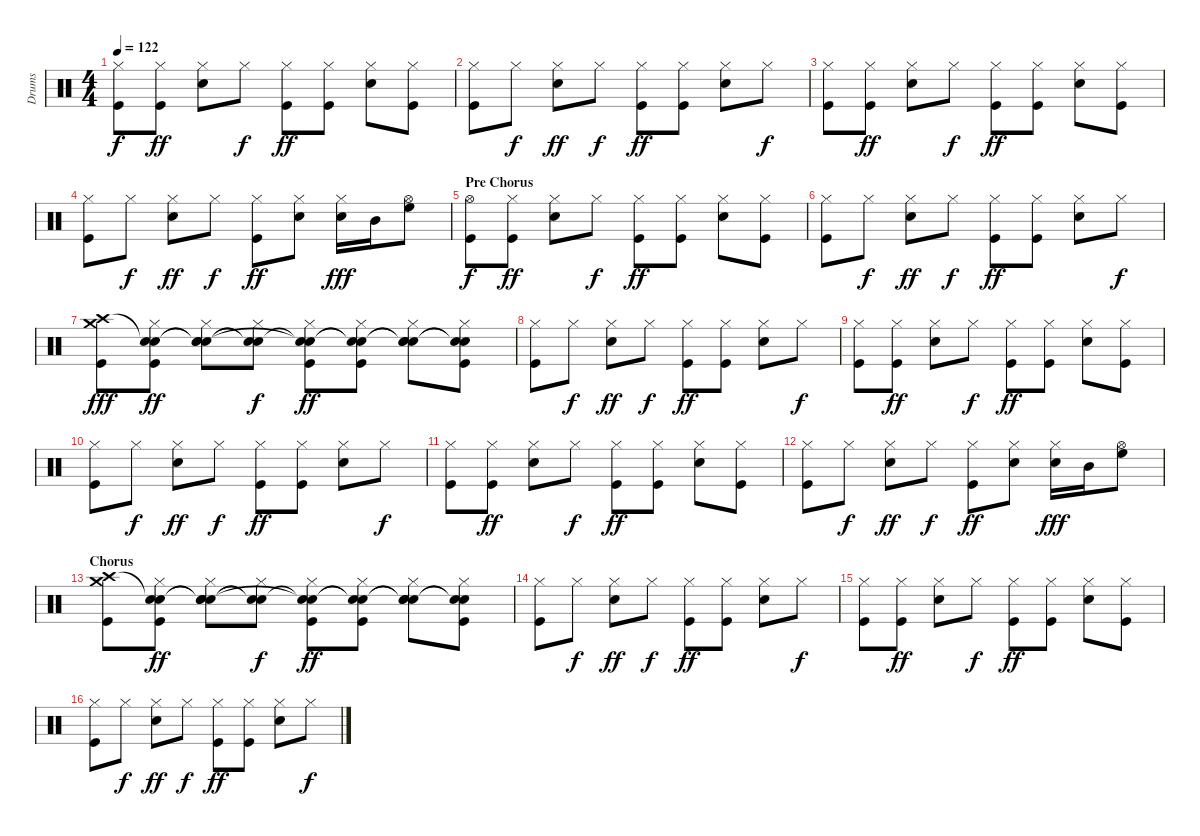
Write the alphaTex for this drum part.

\track ("Drums" "Drums") {instrument percussion}
\staff {score}
\articulation defaults
\ts (4 4)
\tempo 122
\clef neutral
\ks c
("Hi-Hat (closed)" "Kick (hit)").8{dy f} ("Hi-Hat (closed)" "Kick (hit)").8{dy ff} ("Hi-Hat (closed)" "Snare (hit) 2").8 "Hi-Hat (closed)".8{dy f} ("Hi-Hat (closed)" "Kick (hit)").8{dy ff} ("Hi-Hat (closed)" "Kick (hit)").8 ("Hi-Hat (closed)" "Snare (hit) 2").8 ("Hi-Hat (closed)" "Kick (hit)").8 |
("Hi-Hat (closed)" "Kick (hit)").8 "Hi-Hat (closed)".8{dy f} ("Hi-Hat (closed)" "Snare (hit) 2").8{dy ff} "Hi-Hat (closed)".8{dy f} ("Hi-Hat (closed)" "Kick (hit)").8{dy ff} ("Hi-Hat (closed)" "Kick (hit)").8 ("Hi-Hat (closed)" "Snare (hit) 2").8 "Hi-Hat (closed)".8{dy f} |
("Hi-Hat (closed)" "Kick (hit)").8 ("Hi-Hat (closed)" "Kick (hit)").8{dy ff} ("Hi-Hat (closed)" "Snare (hit) 2").8 "Hi-Hat (closed)".8{dy f} ("Hi-Hat (closed)" "Kick (hit)").8{dy ff} ("Hi-Hat (closed)" "Kick (hit)").8 ("Hi-Hat (closed)" "Snare (hit) 2").8 ("Hi-Hat (closed)" "Kick (hit)").8 |
("Hi-Hat (closed)" "Kick (hit)").8 "Hi-Hat (closed)".8{dy f} ("Hi-Hat (closed)" "Snare (hit) 2").8{dy ff} "Hi-Hat (closed)".8{dy f} ("Hi-Hat (closed)" "Kick (hit)").8{dy ff} ("Hi-Hat (closed)" "Snare (hit) 2").8 ("Hi-Hat (closed)" "Snare (hit) 2").16{dy fff} "Mid Tom (hit)".16 ("Hi-Hat (open)" "High Floor Tom (hit)").8 |
\section ("" "Pre Chorus")
("Hi-Hat (open)" "Kick (hit)").8{dy f} ("Hi-Hat (closed)" "Kick (hit)").8{dy ff} ("Hi-Hat (closed)" "Snare (hit) 2").8 "Hi-Hat (closed)".8{dy f} ("Hi-Hat (closed)" "Kick (hit)").8{dy ff} ("Hi-Hat (closed)" "Kick (hit)").8 ("Hi-Hat (closed)" "Snare (hit) 2").8 ("Hi-Hat (closed)" "Kick (hit)").8 |
("Hi-Hat (closed)" "Kick (hit)").8 "Hi-Hat (closed)".8{dy f} ("Hi-Hat (closed)" "Snare (hit) 2").8{dy ff} "Hi-Hat (closed)".8{dy f} ("Hi-Hat (closed)" "Kick (hit)").8{dy ff} ("Hi-Hat (closed)" "Kick (hit)").8 ("Hi-Hat (closed)" "Snare (hit) 2").8 "Hi-Hat (closed)".8{dy f} |
("Kick (hit)" "Crash medium (hit)" "Crash high (hit)").8{dy fff} ("Hi-Hat (closed)" "Kick (hit)" "Snare (hit)"{t} "Snare (hit)").8{dy ff} ("Hi-Hat (closed)" "Snare (hit) 2" "Snare (hit)"{t} "Snare (hit)"{t}).8 ("Hi-Hat (closed)" "Snare (hit)"{t} "Snare (hit)"{t}).8{dy f} ("Hi-Hat (closed)" "Kick (hit)" "Snare (hit)"{t} "Snare (hit)"{t}).8{dy ff} ("Hi-Hat (closed)" "Kick (hit)" "Snare (hit)"{t} "Snare (hit)"{t}).8 ("Hi-Hat (closed)" "Snare (hit) 2" "Snare (hit)"{t} "Snare (hit)"{t}).8 ("Hi-Hat (closed)" "Kick (hit)" "Snare (hit)"{t} "Snare (hit)"{t}).8 |
("Hi-Hat (closed)" "Kick (hit)").8 "Hi-Hat (closed)".8{dy f} ("Hi-Hat (closed)" "Snare (hit) 2").8{dy ff} "Hi-Hat (closed)".8{dy f} ("Hi-Hat (closed)" "Kick (hit)").8{dy ff} ("Hi-Hat (closed)" "Kick (hit)").8 ("Hi-Hat (closed)" "Snare (hit) 2").8 "Hi-Hat (closed)".8{dy f} |
("Hi-Hat (closed)" "Kick (hit)").8 ("Hi-Hat (closed)" "Kick (hit)").8{dy ff} ("Hi-Hat (closed)" "Snare (hit) 2").8 "Hi-Hat (closed)".8{dy f} ("Hi-Hat (closed)" "Kick (hit)").8{dy ff} ("Hi-Hat (closed)" "Kick (hit)").8 ("Hi-Hat (closed)" "Snare (hit) 2").8 ("Hi-Hat (closed)" "Kick (hit)").8 |
("Hi-Hat (closed)" "Kick (hit)").8 "Hi-Hat (closed)".8{dy f} ("Hi-Hat (closed)" "Snare (hit) 2").8{dy ff} "Hi-Hat (closed)".8{dy f} ("Hi-Hat (closed)" "Kick (hit)").8{dy ff} ("Hi-Hat (closed)" "Kick (hit)").8 ("Hi-Hat (closed)" "Snare (hit) 2").8 "Hi-Hat (closed)".8{dy f} |
("Hi-Hat (closed)" "Kick (hit)").8 ("Hi-Hat (closed)" "Kick (hit)").8{dy ff} ("Hi-Hat (closed)" "Snare (hit) 2").8 "Hi-Hat (closed)".8{dy f} ("Hi-Hat (closed)" "Kick (hit)").8{dy ff} ("Hi-Hat (closed)" "Kick (hit)").8 ("Hi-Hat (closed)" "Snare (hit) 2").8 ("Hi-Hat (closed)" "Kick (hit)").8 |
("Hi-Hat (closed)" "Kick (hit)").8 "Hi-Hat (closed)".8{dy f} ("Hi-Hat (closed)" "Snare (hit) 2").8{dy ff} "Hi-Hat (closed)".8{dy f} ("Hi-Hat (closed)" "Kick (hit)").8{dy ff} ("Hi-Hat (closed)" "Snare (hit) 2").8 ("Hi-Hat (closed)" "Snare (hit) 2").16{dy fff} "Mid Tom (hit)".16 ("Hi-Hat (open)" "High Floor Tom (hit)").8 |
\section ("" "Chorus")
("Kick (hit)" "Crash medium (hit)" "Crash high (hit)").8 ("Hi-Hat (closed)" "Kick (hit)" "Snare (hit)"{t} "Snare (hit)").8{dy ff} ("Hi-Hat (closed)" "Snare (hit) 2" "Snare (hit)"{t} "Snare (hit)"{t}).8 ("Hi-Hat (closed)" "Snare (hit)"{t} "Snare (hit)"{t}).8{dy f} ("Hi-Hat (closed)" "Kick (hit)" "Snare (hit)"{t} "Snare (hit)"{t}).8{dy ff} ("Hi-Hat (closed)" "Kick (hit)" "Snare (hit)"{t} "Snare (hit)"{t}).8 ("Hi-Hat (closed)" "Snare (hit) 2" "Snare (hit)"{t} "Snare (hit)"{t}).8 ("Hi-Hat (closed)" "Kick (hit)" "Snare (hit)"{t} "Snare (hit)"{t}).8 |
("Hi-Hat (closed)" "Kick (hit)").8 "Hi-Hat (closed)".8{dy f} ("Hi-Hat (closed)" "Snare (hit) 2").8{dy ff} "Hi-Hat (closed)".8{dy f} ("Hi-Hat (closed)" "Kick (hit)").8{dy ff} ("Hi-Hat (closed)" "Kick (hit)").8 ("Hi-Hat (closed)" "Snare (hit) 2").8 "Hi-Hat (closed)".8{dy f} |
("Hi-Hat (closed)" "Kick (hit)").8 ("Hi-Hat (closed)" "Kick (hit)").8{dy ff} ("Hi-Hat (closed)" "Snare (hit) 2").8 "Hi-Hat (closed)".8{dy f} ("Hi-Hat (closed)" "Kick (hit)").8{dy ff} ("Hi-Hat (closed)" "Kick (hit)").8 ("Hi-Hat (closed)" "Snare (hit) 2").8 ("Hi-Hat (closed)" "Kick (hit)").8 |
("Hi-Hat (closed)" "Kick (hit)").8 "Hi-Hat (closed)".8{dy f} ("Hi-Hat (closed)" "Snare (hit) 2").8{dy ff} "Hi-Hat (closed)".8{dy f} ("Hi-Hat (closed)" "Kick (hit)").8{dy ff} ("Hi-Hat (closed)" "Kick (hit)").8 ("Hi-Hat (closed)" "Snare (hit) 2").8 "Hi-Hat (closed)".8{dy f}
